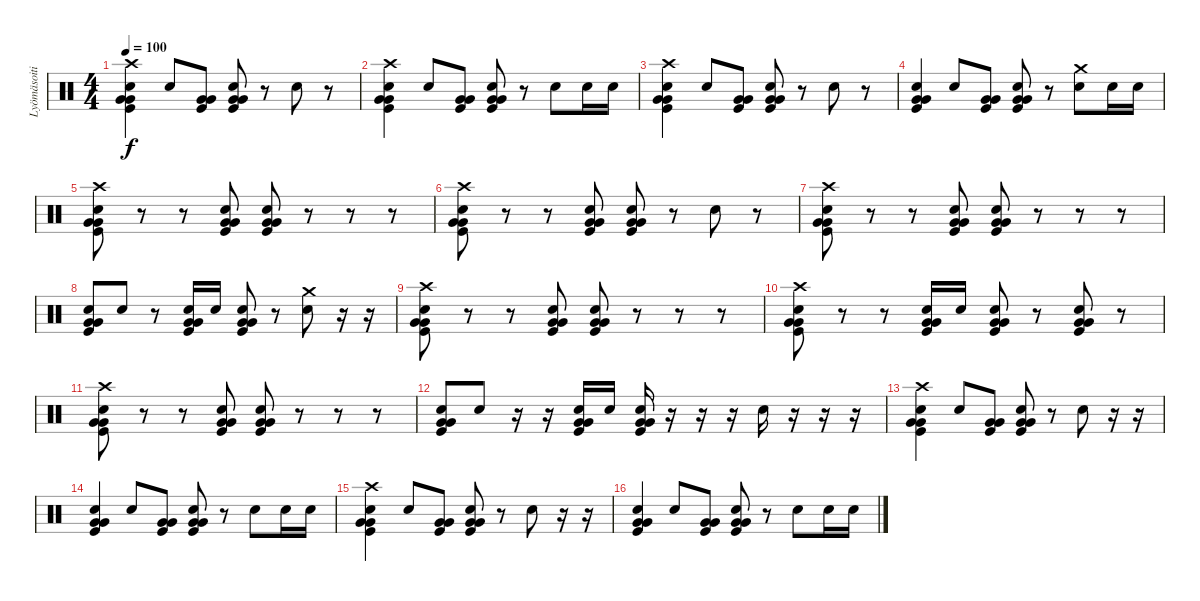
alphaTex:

\track ("Lyömäsoitin" "Lyömäsoiti") {instrument percussion}
\staff {score}
\articulation defaults
\ts (4 4)
\tempo 100
\clef neutral
\ks c
("Crash high (hit)" "Snare (hit) 2" "Very Low Tom (hit)" "Very Low Tom (hit)" "Kick (hit)").4{dy f} "Snare (hit) 2".8 ("Very Low Tom (hit)" "Very Low Tom (hit)" "Kick (hit)").8 ("Snare (hit) 2" "Very Low Tom (hit)" "Very Low Tom (hit)" "Kick (hit)").8 r.8 "Snare (hit) 2".8 r.8 |
("Crash high (hit)" "Snare (hit) 2" "Very Low Tom (hit)" "Very Low Tom (hit)" "Kick (hit)").4 "Snare (hit) 2".8 ("Very Low Tom (hit)" "Very Low Tom (hit)" "Kick (hit)").8 ("Snare (hit) 2" "Very Low Tom (hit)" "Very Low Tom (hit)" "Kick (hit)").8 r.8 "Snare (hit) 2".8 "Snare (hit) 2".16 "Snare (hit) 2".16 |
("Crash high (hit)" "Snare (hit) 2" "Very Low Tom (hit)" "Very Low Tom (hit)" "Kick (hit)").4 "Snare (hit) 2".8 ("Very Low Tom (hit)" "Very Low Tom (hit)" "Kick (hit)").8 ("Snare (hit) 2" "Very Low Tom (hit)" "Very Low Tom (hit)" "Kick (hit)").8 r.8 "Snare (hit) 2".8 r.8 |
("Snare (hit) 2" "Very Low Tom (hit)" "Very Low Tom (hit)" "Kick (hit)").4 "Snare (hit) 2".8 ("Very Low Tom (hit)" "Very Low Tom (hit)" "Kick (hit)").8 ("Snare (hit) 2" "Very Low Tom (hit)" "Very Low Tom (hit)" "Kick (hit)").8 r.8 ("Crash medium (hit)" "Snare (hit) 2").8 "Snare (hit) 2".16 "Snare (hit) 2".16 |
("Crash high (hit)" "Snare (hit) 2" "Very Low Tom (hit)" "Very Low Tom (hit)" "Kick (hit)").8 r.8 r.8 ("Snare (hit) 2" "Very Low Tom (hit)" "Very Low Tom (hit)" "Kick (hit)").8 ("Snare (hit) 2" "Very Low Tom (hit)" "Very Low Tom (hit)" "Kick (hit)").8 r.8 r.8 r.8 |
("Crash high (hit)" "Snare (hit) 2" "Very Low Tom (hit)" "Very Low Tom (hit)" "Kick (hit)").8 r.8 r.8 ("Snare (hit) 2" "Very Low Tom (hit)" "Very Low Tom (hit)" "Kick (hit)").8 ("Snare (hit) 2" "Very Low Tom (hit)" "Very Low Tom (hit)" "Kick (hit)").8 r.8 "Snare (hit) 2".8 r.8 |
("Crash high (hit)" "Snare (hit) 2" "Very Low Tom (hit)" "Very Low Tom (hit)" "Kick (hit)").8 r.8 r.8 ("Snare (hit) 2" "Very Low Tom (hit)" "Very Low Tom (hit)" "Kick (hit)").8 ("Snare (hit) 2" "Very Low Tom (hit)" "Very Low Tom (hit)" "Kick (hit)").8 r.8 r.8 r.8 |
("Snare (hit) 2" "Very Low Tom (hit)" "Very Low Tom (hit)" "Kick (hit)").8 "Snare (hit) 2".8 r.8 ("Snare (hit) 2" "Very Low Tom (hit)" "Very Low Tom (hit)" "Kick (hit)").16 "Snare (hit) 2".16 ("Snare (hit) 2" "Very Low Tom (hit)" "Very Low Tom (hit)" "Kick (hit)").8 r.8 ("Crash medium (hit)" "Snare (hit) 2").8 r.16 r.16 |
("Crash high (hit)" "Snare (hit) 2" "Very Low Tom (hit)" "Very Low Tom (hit)" "Kick (hit)").8 r.8 r.8 ("Snare (hit) 2" "Very Low Tom (hit)" "Very Low Tom (hit)" "Kick (hit)").8 ("Snare (hit) 2" "Very Low Tom (hit)" "Very Low Tom (hit)" "Kick (hit)").8 r.8 r.8 r.8 |
("Crash high (hit)" "Snare (hit) 2" "Very Low Tom (hit)" "Very Low Tom (hit)" "Kick (hit)").8 r.8 r.8 ("Snare (hit) 2" "Very Low Tom (hit)" "Very Low Tom (hit)" "Kick (hit)").16 "Snare (hit) 2".16 ("Snare (hit) 2" "Very Low Tom (hit)" "Very Low Tom (hit)" "Kick (hit)").8 r.8 ("Snare (hit) 2" "Very Low Tom (hit)" "Very Low Tom (hit)" "Kick (hit)").8 r.8 |
("Crash high (hit)" "Snare (hit) 2" "Very Low Tom (hit)" "Very Low Tom (hit)" "Kick (hit)").8 r.8 r.8 ("Snare (hit) 2" "Very Low Tom (hit)" "Very Low Tom (hit)" "Kick (hit)").8 ("Snare (hit) 2" "Very Low Tom (hit)" "Very Low Tom (hit)" "Kick (hit)").8 r.8 r.8 r.8 |
("Snare (hit) 2" "Very Low Tom (hit)" "Very Low Tom (hit)" "Kick (hit)").8 "Snare (hit) 2".8 r.16 r.16 ("Snare (hit) 2" "Very Low Tom (hit)" "Very Low Tom (hit)" "Kick (hit)").16 "Snare (hit) 2".16 ("Snare (hit) 2" "Very Low Tom (hit)" "Very Low Tom (hit)" "Kick (hit)").16 r.16 r.16 r.16 "Snare (hit) 2".16 r.16 r.16 r.16 |
("Crash high (hit)" "Snare (hit) 2" "Very Low Tom (hit)" "Very Low Tom (hit)" "Kick (hit)").4 "Snare (hit) 2".8 ("Very Low Tom (hit)" "Very Low Tom (hit)" "Kick (hit)").8 ("Snare (hit) 2" "Very Low Tom (hit)" "Very Low Tom (hit)" "Kick (hit)").8 r.8 "Snare (hit) 2".8 r.16 r.16 |
("Snare (hit) 2" "Very Low Tom (hit)" "Very Low Tom (hit)" "Kick (hit)").4 "Snare (hit) 2".8 ("Very Low Tom (hit)" "Very Low Tom (hit)" "Kick (hit)").8 ("Snare (hit) 2" "Very Low Tom (hit)" "Very Low Tom (hit)" "Kick (hit)").8 r.8 "Snare (hit) 2".8 "Snare (hit) 2".16 "Snare (hit) 2".16 |
("Crash high (hit)" "Snare (hit) 2" "Very Low Tom (hit)" "Very Low Tom (hit)" "Kick (hit)").4 "Snare (hit) 2".8 ("Very Low Tom (hit)" "Very Low Tom (hit)" "Kick (hit)").8 ("Snare (hit) 2" "Very Low Tom (hit)" "Very Low Tom (hit)" "Kick (hit)").8 r.8 "Snare (hit) 2".8 r.16 r.16 |
("Snare (hit) 2" "Very Low Tom (hit)" "Very Low Tom (hit)" "Kick (hit)").4 "Snare (hit) 2".8 ("Very Low Tom (hit)" "Very Low Tom (hit)" "Kick (hit)").8 ("Snare (hit) 2" "Very Low Tom (hit)" "Very Low Tom (hit)" "Kick (hit)").8 r.8 "Snare (hit) 2".8 "Snare (hit) 2".16 "Snare (hit) 2".16
